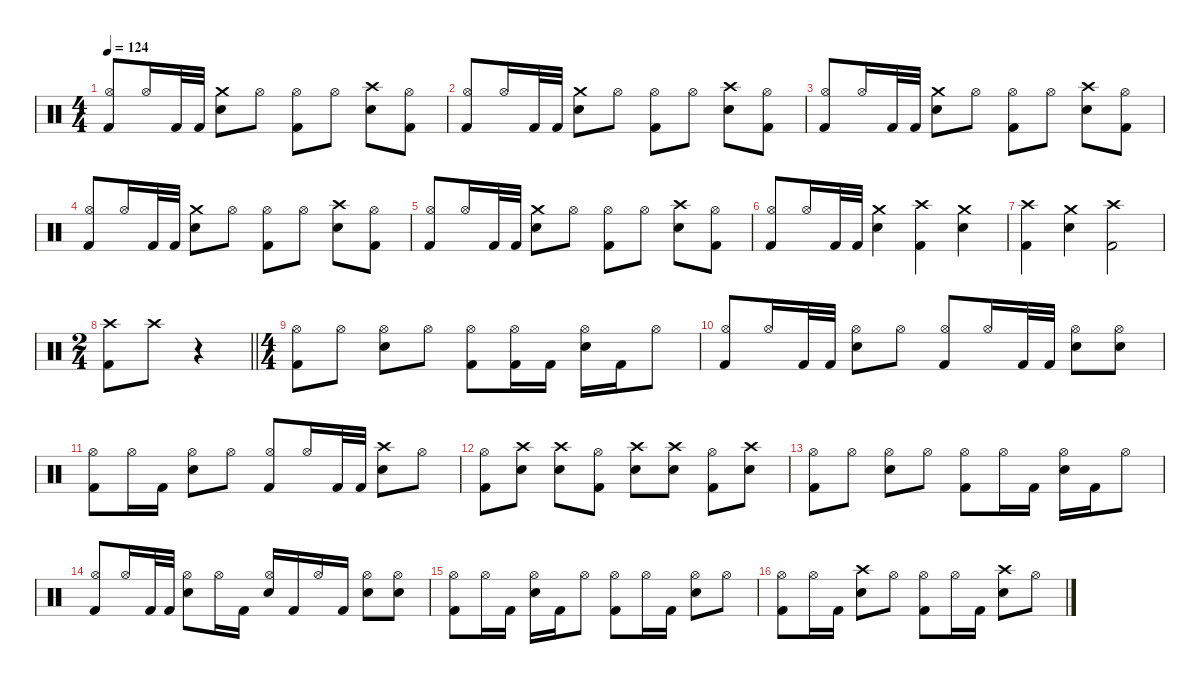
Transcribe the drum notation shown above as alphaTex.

\defaultSystemsLayout 4
\hideDynamics
\bracketExtendMode nobrackets
\singleTrackTrackNamePolicy hidden
\multiTrackTrackNamePolicy hidden
\otherSystemsTrackNameOrientation horizontal
\track ("Drums" "drm.") {defaultSystemsLayout 4 instrument percussion}
\staff {score}
\articulation defaults
\ts (4 4)
\tempo 124
\clef neutral
\ks c
("Hi-Hat (open)" "Kick (hit) 2").8{dy mf beam Up} "Hi-Hat (open)".16{beam Up} "Kick (hit) 2".32{dy ff beam Up} "Kick (hit) 2".32{beam Up} ("Crash medium (hit)" "Snare (hit) 2").8{dy mf beam Down} "Hi-Hat (open)".8{beam Down} ("Hi-Hat (open)" "Kick (hit) 2").8{beam Down} "Hi-Hat (open)".8{beam Down} ("Crash high (hit)" "Snare (hit) 2").8{beam Down} ("Hi-Hat (open)" "Kick (hit) 2").8{beam Down} |
("Hi-Hat (open)" "Kick (hit) 2").8{beam Up} "Hi-Hat (open)".16{beam Up} "Kick (hit) 2".32{dy ff beam Up} "Kick (hit) 2".32{beam Up} ("Crash medium (hit)" "Snare (hit) 2").8{dy mf beam Down} "Hi-Hat (open)".8{beam Down} ("Hi-Hat (open)" "Kick (hit) 2").8{beam Down} "Hi-Hat (open)".8{beam Down} ("Crash high (hit)" "Snare (hit) 2").8{beam Down} ("Hi-Hat (open)" "Kick (hit) 2").8{beam Down} |
("Hi-Hat (open)" "Kick (hit) 2").8{beam Up} "Hi-Hat (open)".16{beam Up} "Kick (hit) 2".32{dy ff beam Up} "Kick (hit) 2".32{beam Up} ("Crash medium (hit)" "Snare (hit) 2").8{dy mf beam Down} "Hi-Hat (open)".8{beam Down} ("Hi-Hat (open)" "Kick (hit) 2").8{beam Down} "Hi-Hat (open)".8{beam Down} ("Crash high (hit)" "Snare (hit) 2").8{beam Down} ("Hi-Hat (open)" "Kick (hit) 2").8{beam Down} |
("Hi-Hat (open)" "Kick (hit) 2").8{beam Up} "Hi-Hat (open)".16{beam Up} "Kick (hit) 2".32{dy ff beam Up} "Kick (hit) 2".32{beam Up} ("Crash medium (hit)" "Snare (hit) 2").8{dy mf beam Down} "Hi-Hat (open)".8{beam Down} ("Hi-Hat (open)" "Kick (hit) 2").8{beam Down} "Hi-Hat (open)".8{beam Down} ("Crash high (hit)" "Snare (hit) 2").8{beam Down} ("Hi-Hat (open)" "Kick (hit) 2").8{beam Down} |
("Hi-Hat (open)" "Kick (hit) 2").8{beam Up} "Hi-Hat (open)".16{beam Up} "Kick (hit) 2".32{dy ff beam Up} "Kick (hit) 2".32{beam Up} ("Crash medium (hit)" "Snare (hit) 2").8{dy mf beam Down} "Hi-Hat (open)".8{beam Down} ("Hi-Hat (open)" "Kick (hit) 2").8{beam Down} "Hi-Hat (open)".8{beam Down} ("Crash high (hit)" "Snare (hit) 2").8{beam Down} ("Hi-Hat (open)" "Kick (hit) 2").8{beam Down} |
("Hi-Hat (open)" "Kick (hit) 2").8{beam Up} "Hi-Hat (open)".16{beam Up} "Kick (hit) 2".32{dy ff beam Up} "Kick (hit) 2".32{beam Up} ("Crash medium (hit)" "Snare (hit) 2").4{dy mf beam Down} ("Crash high (hit)" "Kick (hit) 2").4{beam Down} ("Crash medium (hit)" "Snare (hit) 2").4{beam Down} |
("Crash high (hit)" "Kick (hit) 2").4{beam Down} ("Crash medium (hit)" "Snare (hit) 2").4{beam Down} ("Crash high (hit)" "Kick (hit) 2").2{beam Down} |
\ts (2 4)
\beaming (8 2 2)
\barLineRight lightlight
("Crash high (hit)" "Kick (hit) 2").8{beam Down} "Crash high (hit)".8{dy ppp beam Down} r.4{beam Down} |
\ts (4 4)
\beaming (8 2 2 2 2)
("Hi-Hat (open)" "Kick (hit) 2").8{dy mf beam Down} "Hi-Hat (open)".8{beam Down} ("Hi-Hat (open)" "Snare (hit) 2").8{beam Down} "Hi-Hat (open)".8{beam Down} ("Hi-Hat (open)" "Kick (hit) 2").8{beam Down} ("Hi-Hat (open)" "Kick (hit) 2").16{beam Down} "Kick (hit) 2".16{dy ff beam Down} ("Hi-Hat (open)" "Snare (hit) 2").16{dy mf beam Down} "Kick (hit) 2".16{dy ff beam Down} "Hi-Hat (open)".8{dy mf beam Down} |
("Hi-Hat (open)" "Kick (hit) 2").8{beam Up} "Hi-Hat (open)".16{beam Up} "Kick (hit) 2".32{dy ff beam Up} "Kick (hit) 2".32{beam Up} ("Hi-Hat (open)" "Snare (hit) 2").8{dy mf beam Down} "Hi-Hat (open)".8{beam Down} ("Hi-Hat (open)" "Kick (hit) 2").8{beam Up} "Hi-Hat (open)".16{beam Up} "Kick (hit) 2".32{dy ff beam Up} "Kick (hit) 2".32{beam Up} ("Hi-Hat (open)" "Snare (hit) 2").8{dy mf beam Down} ("Hi-Hat (open)" "Snare (hit) 2").8{beam Down} |
("Hi-Hat (open)" "Kick (hit) 2").8{beam Down} "Hi-Hat (open)".16{beam Down} "Kick (hit) 2".16{dy ff beam Down} ("Hi-Hat (open)" "Snare (hit) 2").8{dy mf beam Down} "Hi-Hat (open)".8{beam Down} ("Hi-Hat (open)" "Kick (hit) 2").8{beam Up} "Hi-Hat (open)".16{beam Up} "Kick (hit) 2".32{dy ff beam Up} "Kick (hit) 2".32{beam Up} ("Crash high (hit)" "Snare (hit) 2").8{dy mf beam Down} "Hi-Hat (open)".8{beam Down} |
("Hi-Hat (open)" "Kick (hit) 2").8{beam Down} ("Crash high (hit)" "Snare (hit) 2").8{beam Down} ("Crash high (hit)" "Snare (hit) 2").8{beam Down} ("Hi-Hat (open)" "Kick (hit) 2").8{beam Down} ("Crash high (hit)" "Snare (hit) 2").8{beam Down} ("Crash high (hit)" "Snare (hit) 2").8{beam Down} ("Hi-Hat (open)" "Kick (hit) 2").8{beam Down} ("Crash high (hit)" "Snare (hit) 2").8{beam Down} |
("Hi-Hat (open)" "Kick (hit) 2").8{beam Down} "Hi-Hat (open)".8{beam Down} ("Hi-Hat (open)" "Snare (hit) 2").8{beam Down} "Hi-Hat (open)".8{beam Down} ("Hi-Hat (open)" "Kick (hit) 2").8{beam Down} "Hi-Hat (open)".16{beam Down} "Kick (hit) 2".16{dy ff beam Down} ("Hi-Hat (open)" "Snare (hit) 2").16{dy mf beam Down} "Kick (hit) 2".16{dy ff beam Down} "Hi-Hat (open)".8{dy mf beam Down} |
("Hi-Hat (open)" "Kick (hit) 2").8{beam Up} "Hi-Hat (open)".16{beam Up} "Kick (hit) 2".32{dy ff beam Up} "Kick (hit) 2".32{beam Up} ("Hi-Hat (open)" "Snare (hit) 2").8{dy mf beam Down} "Hi-Hat (open)".16{beam Down} "Kick (hit) 2".16{dy ff beam Down} ("Hi-Hat (open)" "Snare (hit) 2").16{dy mf beam Up} "Kick (hit) 2".16{dy ff beam Up} "Hi-Hat (open)".16{dy mf beam Up} "Kick (hit) 2".16{dy ff beam Up} ("Hi-Hat (open)" "Snare (hit) 2").8{dy mf beam Down} ("Hi-Hat (open)" "Snare (hit) 2").8{beam Down} |
("Hi-Hat (open)" "Kick (hit) 2").8{beam Down} "Hi-Hat (open)".16{beam Down} "Kick (hit) 2".16{dy ff beam Down} ("Hi-Hat (open)" "Snare (hit) 2").16{dy mf beam Down} "Kick (hit) 2".16{dy ff beam Down} "Hi-Hat (open)".8{dy mf beam Down} ("Hi-Hat (open)" "Kick (hit) 2").8{beam Down} "Hi-Hat (open)".16{beam Down} "Kick (hit) 2".16{dy ff beam Down} ("Hi-Hat (open)" "Snare (hit) 2").8{dy mf beam Down} "Hi-Hat (open)".8{beam Down} |
("Hi-Hat (open)" "Kick (hit) 2").8{beam Down} "Hi-Hat (open)".16{beam Down} "Kick (hit) 2".16{dy ff beam Down} ("Crash high (hit)" "Snare (hit) 2").8{dy mf beam Down} "Hi-Hat (open)".8{beam Down} ("Hi-Hat (open)" "Kick (hit) 2").8{beam Down} "Hi-Hat (open)".16{beam Down} "Kick (hit) 2".16{dy ff beam Down} ("Crash high (hit)" "Snare (hit) 2").8{dy mf beam Down} "Hi-Hat (open)".8{beam Down}
